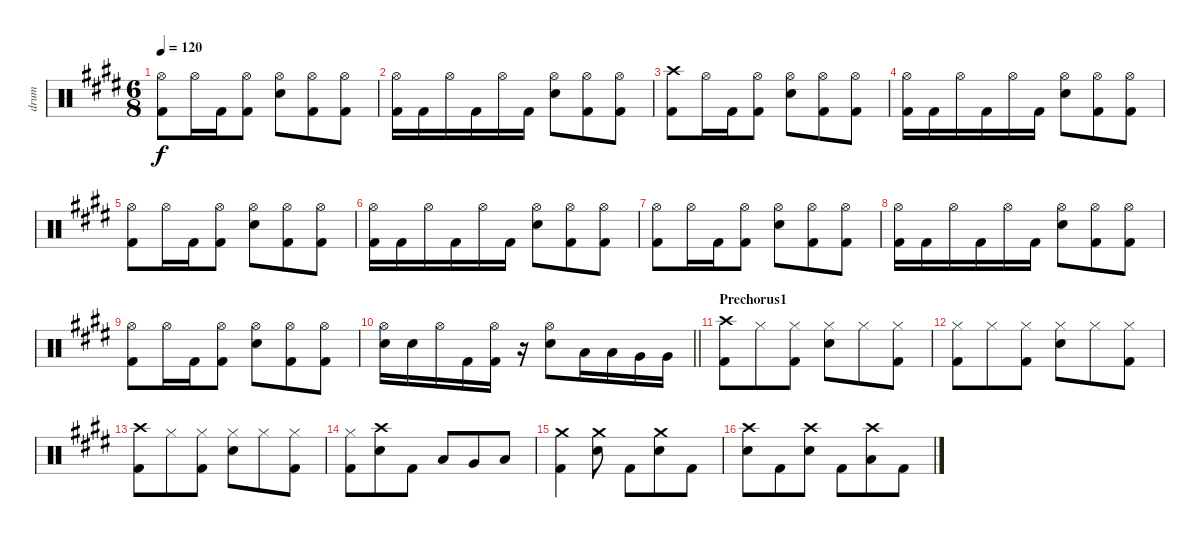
\track ("drum" "drum") {instrument percussion}
\staff {score}
\articulation defaults
\ts (6 8)
\tempo 120
\clef neutral
\ks e
("Hi-Hat (open)" "Kick (hit) 2").8{dy f} "Hi-Hat (open)".16 "Kick (hit) 2".16 ("Hi-Hat (open)" "Kick (hit) 2").8 ("Hi-Hat (open)" "Snare (hit) 2").8 ("Hi-Hat (open)" "Kick (hit) 2").8 ("Hi-Hat (open)" "Kick (hit) 2").8 |
("Hi-Hat (open)" "Kick (hit) 2").16 "Kick (hit) 2".16 "Hi-Hat (open)".16 "Kick (hit) 2".16 "Hi-Hat (open)".16 "Kick (hit) 2".16 ("Hi-Hat (open)" "Snare (hit) 2").8 ("Hi-Hat (open)" "Kick (hit) 2").8 ("Hi-Hat (open)" "Kick (hit) 2").8 |
("Crash high (hit)" "Kick (hit) 2").8 "Hi-Hat (open)".16 "Kick (hit) 2".16 ("Hi-Hat (open)" "Kick (hit) 2").8 ("Hi-Hat (open)" "Snare (hit) 2").8 ("Hi-Hat (open)" "Kick (hit) 2").8 ("Hi-Hat (open)" "Kick (hit) 2").8 |
("Hi-Hat (open)" "Kick (hit) 2").16 "Kick (hit) 2".16 "Hi-Hat (open)".16 "Kick (hit) 2".16 "Hi-Hat (open)".16 "Kick (hit) 2".16 ("Hi-Hat (open)" "Snare (hit) 2").8 ("Hi-Hat (open)" "Kick (hit) 2").8 ("Hi-Hat (open)" "Kick (hit) 2").8 |
("Hi-Hat (open)" "Kick (hit) 2").8 "Hi-Hat (open)".16 "Kick (hit) 2".16 ("Hi-Hat (open)" "Kick (hit) 2").8 ("Hi-Hat (open)" "Snare (hit) 2").8 ("Hi-Hat (open)" "Kick (hit) 2").8 ("Hi-Hat (open)" "Kick (hit) 2").8 |
("Hi-Hat (open)" "Kick (hit) 2").16 "Kick (hit) 2".16 "Hi-Hat (open)".16 "Kick (hit) 2".16 "Hi-Hat (open)".16 "Kick (hit) 2".16 ("Hi-Hat (open)" "Snare (hit) 2").8 ("Hi-Hat (open)" "Kick (hit) 2").8 ("Hi-Hat (open)" "Kick (hit) 2").8 |
("Hi-Hat (open)" "Kick (hit) 2").8 "Hi-Hat (open)".16 "Kick (hit) 2".16 ("Hi-Hat (open)" "Kick (hit) 2").8 ("Hi-Hat (open)" "Snare (hit) 2").8 ("Hi-Hat (open)" "Kick (hit) 2").8 ("Hi-Hat (open)" "Kick (hit) 2").8 |
("Hi-Hat (open)" "Kick (hit) 2").16 "Kick (hit) 2".16 "Hi-Hat (open)".16 "Kick (hit) 2".16 "Hi-Hat (open)".16 "Kick (hit) 2".16 ("Hi-Hat (open)" "Snare (hit) 2").8 ("Hi-Hat (open)" "Kick (hit) 2").8 ("Hi-Hat (open)" "Kick (hit) 2").8 |
("Hi-Hat (open)" "Kick (hit) 2").8 "Hi-Hat (open)".16 "Kick (hit) 2".16 ("Hi-Hat (open)" "Kick (hit) 2").8 ("Hi-Hat (open)" "Snare (hit) 2").8 ("Hi-Hat (open)" "Kick (hit) 2").8 ("Hi-Hat (open)" "Kick (hit) 2").8 |
\barLineRight lightlight
("Hi-Hat (open)" "Snare (hit) 2").16 "Snare (hit) 2".16 "Hi-Hat (open)".16 "Kick (hit) 2".16 ("Hi-Hat (open)" "Kick (hit) 2").16 r.16 ("Hi-Hat (open)" "Snare (hit) 2").8 "Low Tom (hit)".16 "Low Tom (hit)".16 "Very Low Tom (hit)".16 "Very Low Tom (hit)".16 |
\section ("" "Prechorus1")
("Crash high (hit)" "Kick (hit) 2").8 "Hi-Hat (closed)".8 ("Hi-Hat (closed)" "Kick (hit) 2").8 ("Hi-Hat (closed)" "Snare (hit) 2").8 "Hi-Hat (closed)".8 ("Hi-Hat (closed)" "Kick (hit) 2").8 |
("Hi-Hat (closed)" "Kick (hit) 2").8 "Hi-Hat (closed)".8 ("Hi-Hat (closed)" "Kick (hit) 2").8 ("Hi-Hat (closed)" "Snare (hit) 2").8 "Hi-Hat (closed)".8 ("Hi-Hat (closed)" "Kick (hit) 2").8 |
("Crash high (hit)" "Kick (hit) 2").8 "Hi-Hat (closed)".8 ("Hi-Hat (closed)" "Kick (hit) 2").8 ("Hi-Hat (closed)" "Snare (hit) 2").8 "Hi-Hat (closed)".8 ("Hi-Hat (closed)" "Kick (hit) 2").8 |
("Hi-Hat (closed)" "Kick (hit) 2").8 ("Crash high (hit)" "Snare (hit) 2").8 "Kick (hit) 2".8 "Low Tom (hit)".8 "Very Low Tom (hit)".8 "Low Floor Tom (hit)".8 |
("Crash medium (hit)" "Kick (hit) 2").4 ("Crash medium (hit)" "Snare (hit) 2").8 "Kick (hit) 2".8 ("Crash medium (hit)" "Snare (hit) 2").8 "Kick (hit) 2".8 |
("Crash high (hit)" "Snare (hit) 2").8 "Kick (hit) 2".8 ("Crash high (hit)" "Snare (hit) 2").8 "Kick (hit) 2".8 ("Crash high (hit)" "Low Floor Tom (hit)").8 "Kick (hit) 2".8
